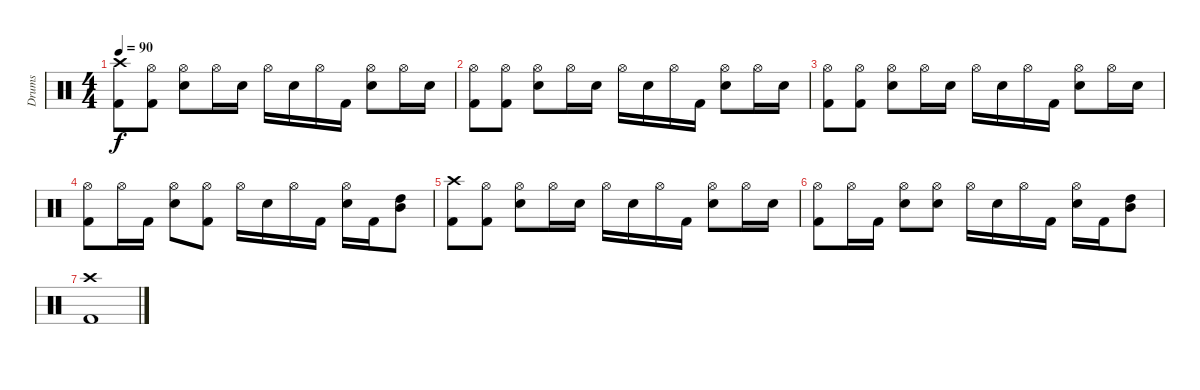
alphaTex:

\track ("Drums" "Drums") {instrument percussion}
\staff {score}
\articulation defaults
\ts (4 4)
\tempo 90
\clef neutral
\ks c
("Kick (hit) 2" "Crash high (hit)").8{dy f} ("Kick (hit) 2" "Hi-Hat (open)").8 ("Snare (hit) 2" "Hi-Hat (open)").8 "Hi-Hat (open)".16 "Snare (hit) 2".16 "Hi-Hat (open)".16 "Snare (hit) 2".16 "Hi-Hat (open)".16 "Kick (hit) 2".16 ("Snare (hit) 2" "Hi-Hat (open)").8 "Hi-Hat (open)".16 "Snare (hit) 2".16 |
("Kick (hit) 2" "Hi-Hat (open)").8 ("Kick (hit) 2" "Hi-Hat (open)").8 ("Snare (hit) 2" "Hi-Hat (open)").8 "Hi-Hat (open)".16 "Snare (hit) 2".16 "Hi-Hat (open)".16 "Snare (hit) 2".16 "Hi-Hat (open)".16 "Kick (hit) 2".16 ("Snare (hit) 2" "Hi-Hat (open)").8 "Hi-Hat (open)".16 "Snare (hit) 2".16 |
("Kick (hit) 2" "Hi-Hat (open)").8 ("Kick (hit) 2" "Hi-Hat (open)").8 ("Snare (hit) 2" "Hi-Hat (open)").8 "Hi-Hat (open)".16 "Snare (hit) 2".16 "Hi-Hat (open)".16 "Snare (hit) 2".16 "Hi-Hat (open)".16 "Kick (hit) 2".16 ("Snare (hit) 2" "Hi-Hat (open)").8 "Hi-Hat (open)".16 "Snare (hit) 2".16 |
("Kick (hit) 2" "Hi-Hat (open)").8 "Hi-Hat (open)".16 "Kick (hit) 2".16 ("Snare (hit) 2" "Hi-Hat (open)").8 ("Kick (hit) 2" "Hi-Hat (open)").8 "Hi-Hat (open)".16 "Snare (hit) 2".16 "Hi-Hat (open)".16 "Kick (hit) 2".16 ("Snare (hit) 2" "Hi-Hat (open)").16 "Kick (hit) 2".16 ("High Tom (hit)" "Mid Tom (hit)").8 |
("Kick (hit) 2" "Crash high (hit)").8 ("Kick (hit) 2" "Hi-Hat (open)").8 ("Snare (hit) 2" "Hi-Hat (open)").8 "Hi-Hat (open)".16 "Snare (hit) 2".16 "Hi-Hat (open)".16 "Snare (hit) 2".16 "Hi-Hat (open)".16 "Kick (hit) 2".16 ("Snare (hit) 2" "Hi-Hat (open)").8 "Hi-Hat (open)".16 "Snare (hit) 2".16 |
("Kick (hit) 2" "Hi-Hat (open)").8 "Hi-Hat (open)".16 "Kick (hit) 2".16 ("Snare (hit) 2" "Hi-Hat (open)").8 ("Snare (hit) 2" "Hi-Hat (open)").8 "Hi-Hat (open)".16 "Snare (hit) 2".16 "Hi-Hat (open)".16 "Kick (hit) 2".16 ("Snare (hit) 2" "Hi-Hat (open)").16 "Kick (hit) 2".16 ("High Tom (hit)" "Mid Tom (hit)").8 |
("Kick (hit) 2" "Crash high (hit)").1
